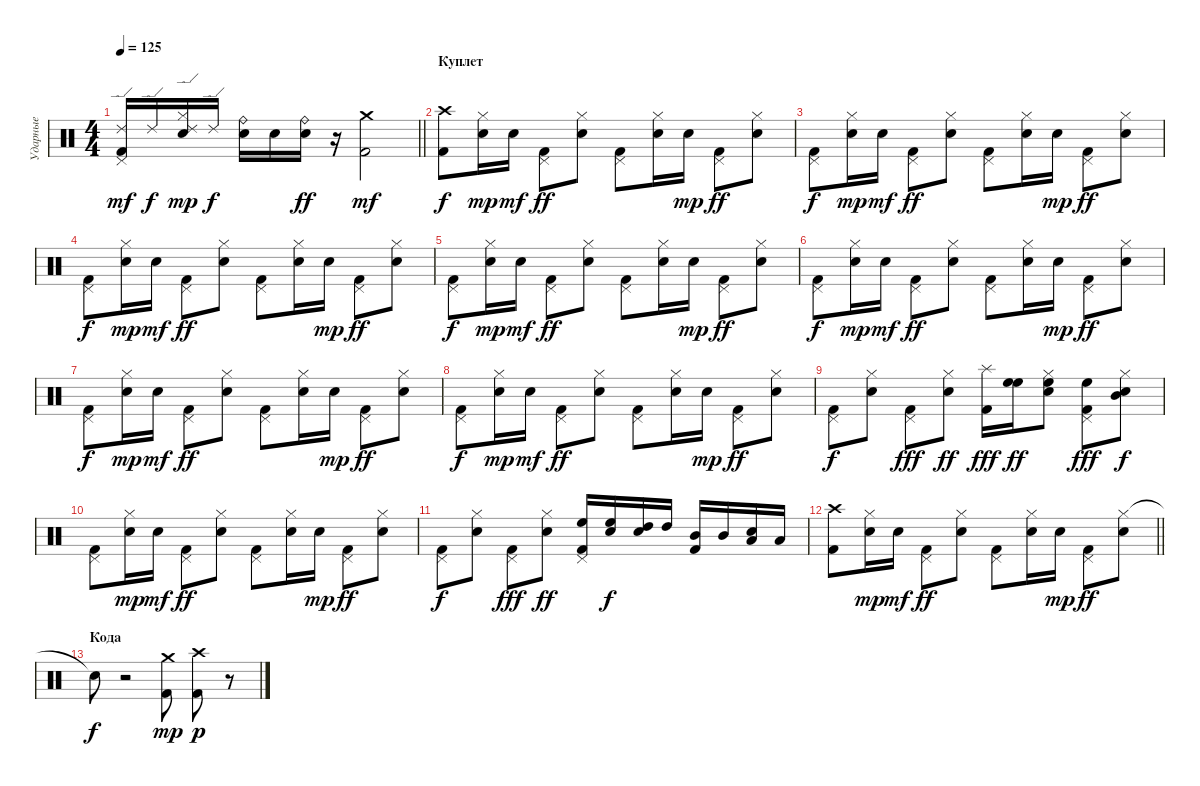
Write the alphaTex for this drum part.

\track ("Ударные" "Ударные") {instrument percussion}
\staff {score}
\articulation defaults
\ts (4 4)
\tempo 125
\clef neutral
\barLineRight lightlight
\ks c
("Pedal Hi-Hat (hit)" "Ride (edge) 2" "Kick (hit) 2").16{dy mf} "Ride (edge) 2".16{dy f} ("Hi-Hat (closed)" "Ride (edge) 2" "Electric Snare (hit)").16{dy mp} "Ride (edge) 2".16{dy f} ("Ride (bell)" "Electric Snare (hit)").16 "Electric Snare (hit)".16 ("Ride (bell)" "Electric Snare (hit)").16{dy ff} r.16 ("Crash medium (hit)" "Kick (hit) 2").2{dy mf} |
\section ("" "Куплет")
("Crash high (hit)" "Kick (hit) 2").8{dy f} ("Hi-Hat (closed)" "Electric Snare (hit)").16{dy mp} "Electric Snare (hit)".16{dy mf} ("Pedal Hi-Hat (hit)" "Kick (hit) 2").8{dy ff} ("Hi-Hat (closed)" "Electric Snare (hit)").8 ("Pedal Hi-Hat (hit)" "Kick (hit) 2").8 ("Hi-Hat (closed)" "Electric Snare (hit)").16 "Electric Snare (hit)".16{dy mp} ("Pedal Hi-Hat (hit)" "Kick (hit) 2").8{dy ff} ("Hi-Hat (closed)" "Electric Snare (hit)").8 |
("Pedal Hi-Hat (hit)" "Kick (hit) 2").8{dy f} ("Hi-Hat (closed)" "Electric Snare (hit)").16{dy mp} "Electric Snare (hit)".16{dy mf} ("Pedal Hi-Hat (hit)" "Kick (hit) 2").8{dy ff} ("Hi-Hat (closed)" "Electric Snare (hit)").8 ("Pedal Hi-Hat (hit)" "Kick (hit) 2").8 ("Hi-Hat (closed)" "Electric Snare (hit)").16 "Electric Snare (hit)".16{dy mp} ("Pedal Hi-Hat (hit)" "Kick (hit) 2").8{dy ff} ("Hi-Hat (closed)" "Electric Snare (hit)").8 |
("Pedal Hi-Hat (hit)" "Kick (hit) 2").8{dy f} ("Hi-Hat (closed)" "Electric Snare (hit)").16{dy mp} "Electric Snare (hit)".16{dy mf} ("Pedal Hi-Hat (hit)" "Kick (hit) 2").8{dy ff} ("Hi-Hat (closed)" "Electric Snare (hit)").8 ("Pedal Hi-Hat (hit)" "Kick (hit) 2").8 ("Hi-Hat (closed)" "Electric Snare (hit)").16 "Electric Snare (hit)".16{dy mp} ("Pedal Hi-Hat (hit)" "Kick (hit) 2").8{dy ff} ("Hi-Hat (closed)" "Electric Snare (hit)").8 |
("Pedal Hi-Hat (hit)" "Kick (hit) 2").8{dy f} ("Hi-Hat (closed)" "Electric Snare (hit)").16{dy mp} "Electric Snare (hit)".16{dy mf} ("Pedal Hi-Hat (hit)" "Kick (hit) 2").8{dy ff} ("Hi-Hat (closed)" "Electric Snare (hit)").8 ("Pedal Hi-Hat (hit)" "Kick (hit) 2").8 ("Hi-Hat (closed)" "Electric Snare (hit)").16 "Electric Snare (hit)".16{dy mp} ("Pedal Hi-Hat (hit)" "Kick (hit) 2").8{dy ff} ("Hi-Hat (closed)" "Electric Snare (hit)").8 |
("Pedal Hi-Hat (hit)" "Kick (hit) 2").8{dy f} ("Hi-Hat (closed)" "Electric Snare (hit)").16{dy mp} "Electric Snare (hit)".16{dy mf} ("Pedal Hi-Hat (hit)" "Kick (hit) 2").8{dy ff} ("Hi-Hat (closed)" "Electric Snare (hit)").8 ("Pedal Hi-Hat (hit)" "Kick (hit) 2").8 ("Hi-Hat (closed)" "Electric Snare (hit)").16 "Electric Snare (hit)".16{dy mp} ("Pedal Hi-Hat (hit)" "Kick (hit) 2").8{dy ff} ("Hi-Hat (closed)" "Electric Snare (hit)").8 |
("Pedal Hi-Hat (hit)" "Kick (hit) 2").8{dy f} ("Hi-Hat (closed)" "Electric Snare (hit)").16{dy mp} "Electric Snare (hit)".16{dy mf} ("Pedal Hi-Hat (hit)" "Kick (hit) 2").8{dy ff} ("Hi-Hat (closed)" "Electric Snare (hit)").8 ("Pedal Hi-Hat (hit)" "Kick (hit) 2").8 ("Hi-Hat (closed)" "Electric Snare (hit)").16 "Electric Snare (hit)".16{dy mp} ("Pedal Hi-Hat (hit)" "Kick (hit) 2").8{dy ff} ("Hi-Hat (closed)" "Electric Snare (hit)").8 |
("Pedal Hi-Hat (hit)" "Kick (hit) 2").8{dy f} ("Hi-Hat (closed)" "Electric Snare (hit)").16{dy mp} "Electric Snare (hit)".16{dy mf} ("Pedal Hi-Hat (hit)" "Kick (hit) 2").8{dy ff} ("Hi-Hat (closed)" "Electric Snare (hit)").8 ("Pedal Hi-Hat (hit)" "Kick (hit) 2").8 ("Hi-Hat (closed)" "Electric Snare (hit)").16 "Electric Snare (hit)".16{dy mp} ("Pedal Hi-Hat (hit)" "Kick (hit) 2").8{dy ff} ("Hi-Hat (closed)" "Electric Snare (hit)").8 |
("Pedal Hi-Hat (hit)" "Kick (hit) 2").8{dy f} ("Hi-Hat (closed)" "Electric Snare (hit)").8 ("Pedal Hi-Hat (hit)" "Kick (hit) 2").8{dy fff} ("Hi-Hat (closed)" "Electric Snare (hit)").8{dy ff} ("Splash (hit)" "Kick (hit) 2").16{dy fff} ("High Floor Tom (hit)" "High Floor Tom (hit)").16{dy ff} ("Hi-Hat (closed)" "Electric Snare (hit)" "High Floor Tom (hit)").8 ("Pedal Hi-Hat (hit)" "High Floor Tom (hit)" "Kick (hit) 2").8{dy fff} ("Hi-Hat (closed)" "Electric Snare (hit)" "Mid Tom (hit)").8{dy f} |
("Pedal Hi-Hat (hit)" "Kick (hit) 2").8 ("Hi-Hat (closed)" "Electric Snare (hit)").16{dy mp} "Electric Snare (hit)".16{dy mf} ("Pedal Hi-Hat (hit)" "Kick (hit) 2").8{dy ff} ("Hi-Hat (closed)" "Electric Snare (hit)").8 ("Pedal Hi-Hat (hit)" "Kick (hit) 2").8 ("Hi-Hat (closed)" "Electric Snare (hit)").16 "Electric Snare (hit)".16{dy mp} ("Pedal Hi-Hat (hit)" "Kick (hit) 2").8{dy ff} ("Hi-Hat (closed)" "Electric Snare (hit)").8 |
("Pedal Hi-Hat (hit)" "Kick (hit) 2").8{dy f} ("Hi-Hat (closed)" "Electric Snare (hit)").8 ("Pedal Hi-Hat (hit)" "Kick (hit) 2").8{dy fff} ("Hi-Hat (closed)" "Electric Snare (hit)").8{dy ff} ("Pedal Hi-Hat (hit)" "High Floor Tom (hit)" "Kick (hit) 2").16 ("Electric Snare (hit)" "High Floor Tom (hit)").16{dy f} ("Electric Snare (hit)" "High Tom (hit)").16 "High Tom (hit)".16 ("Mid Tom (hit)" "Kick (hit) 2").16 "Mid Tom (hit)".16 ("Electric Snare (hit)" "Low Tom (hit)").16 "Low Tom (hit)".16 |
\barLineRight lightlight
("Crash high (hit)" "Kick (hit) 2").8 ("Hi-Hat (closed)" "Electric Snare (hit)").16{dy mp} "Electric Snare (hit)".16{dy mf} ("Pedal Hi-Hat (hit)" "Kick (hit) 2").8{dy ff} ("Hi-Hat (closed)" "Electric Snare (hit)").8 ("Pedal Hi-Hat (hit)" "Kick (hit) 2").8 ("Hi-Hat (closed)" "Electric Snare (hit)").16 "Electric Snare (hit)".16{dy mp} ("Pedal Hi-Hat (hit)" "Kick (hit) 2").8{dy ff} ("Hi-Hat (closed)" "Electric Snare (hit)").8 |
\section ("" "Кода")
"Snare (hit)"{t}.8{dy f} r.2 ("Crash medium (hit)" "Kick (hit) 2").8{dy mp} ("Crash high (hit)" "Kick (hit) 2").8{dy p} r.8
